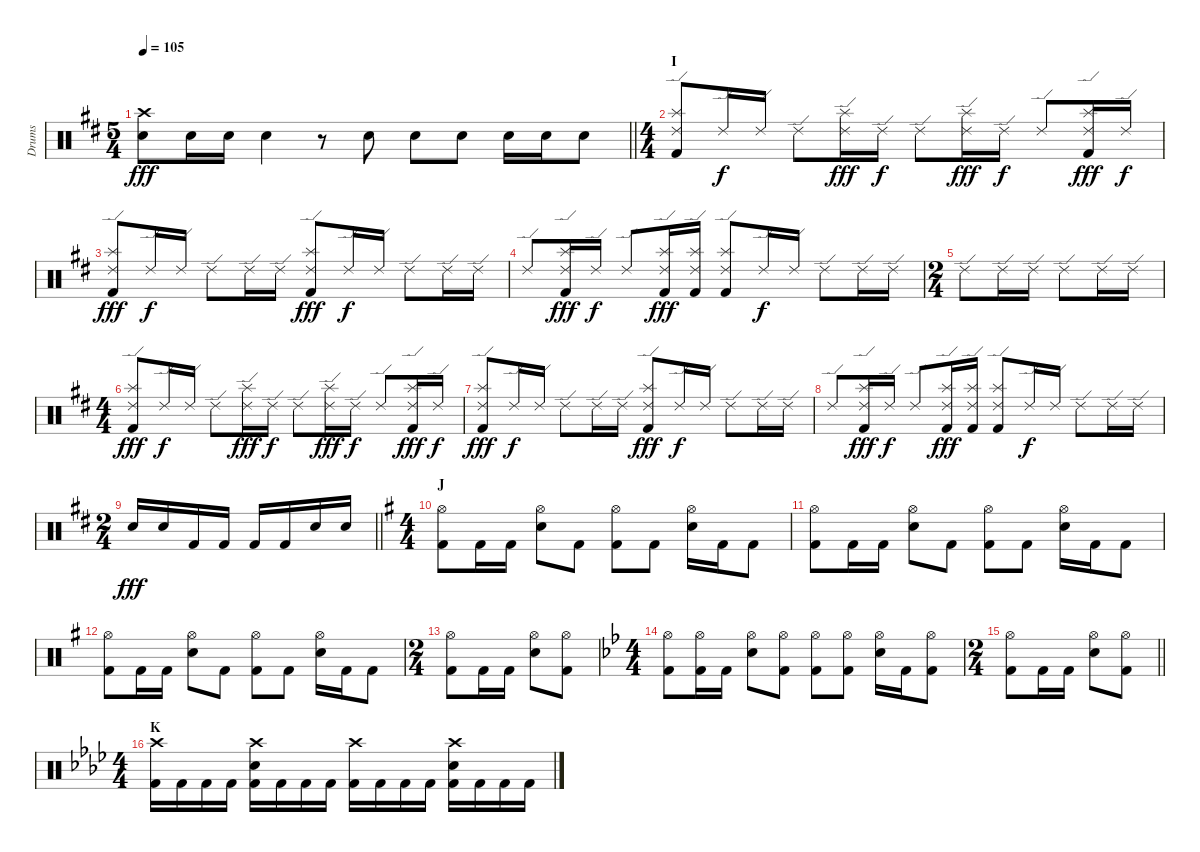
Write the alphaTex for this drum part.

\track ("Drums" "Drums") {instrument percussion}
\staff {score}
\articulation defaults
\ts (5 4)
\tempo 105
\clef neutral
\barLineRight lightlight
\ks bminor
("Crash high (hit)" "Snare (hit) 2").8{dy fff} "Snare (hit) 2".16 "Snare (hit) 2".16 "Snare (hit) 2".4 r.8 "Snare (hit) 2".8 "Snare (hit) 2".8 "Snare (hit) 2".8 "Snare (hit) 2".16 "Snare (hit) 2".16 "Snare (hit) 2".8 |
\ts (4 4)
\section ("" "I")
("Ride (edge) 2" "Splash (hit)" "Kick (hit) 2").8 "Ride (edge) 2".16{dy f} "Ride (edge) 2".16 "Ride (edge) 2".8 ("Ride (edge) 2" "Splash (hit)").16{dy fff} "Ride (edge) 2".16{dy f} "Ride (edge) 2".8 ("Ride (edge) 2" "Splash (hit)").16{dy fff} "Ride (edge) 2".16{dy f} "Ride (edge) 2".8 ("Ride (edge) 2" "Splash (hit)" "Kick (hit) 2").16{dy fff} "Ride (edge) 2".16{dy f} |
("Ride (edge) 2" "Splash (hit)" "Kick (hit) 2").8{dy fff} "Ride (edge) 2".16{dy f} "Ride (edge) 2".16 "Ride (edge) 2".8 "Ride (edge) 2".16 "Ride (edge) 2".16 ("Ride (edge) 2" "Splash (hit)" "Kick (hit) 2").8{dy fff} "Ride (edge) 2".16{dy f} "Ride (edge) 2".16 "Ride (edge) 2".8 "Ride (edge) 2".16 "Ride (edge) 2".16 |
"Ride (edge) 2".8 ("Ride (edge) 2" "Splash (hit)" "Kick (hit) 2").16{dy fff} "Ride (edge) 2".16{dy f} "Ride (edge) 2".8 ("Ride (edge) 2" "Splash (hit)" "Kick (hit) 2").16{dy fff} ("Ride (edge) 2" "Splash (hit)" "Kick (hit) 2").16 ("Ride (edge) 2" "Splash (hit)" "Kick (hit) 2").8 "Ride (edge) 2".16{dy f} "Ride (edge) 2".16 "Ride (edge) 2".8 "Ride (edge) 2".16 "Ride (edge) 2".16 |
\ts (2 4)
"Ride (edge) 2".8 "Ride (edge) 2".16 "Ride (edge) 2".16 "Ride (edge) 2".8 "Ride (edge) 2".16 "Ride (edge) 2".16 |
\ts (4 4)
("Ride (edge) 2" "Splash (hit)" "Kick (hit) 2").8{dy fff} "Ride (edge) 2".16{dy f} "Ride (edge) 2".16 "Ride (edge) 2".8 ("Ride (edge) 2" "Splash (hit)").16{dy fff} "Ride (edge) 2".16{dy f} "Ride (edge) 2".8 ("Ride (edge) 2" "Splash (hit)").16{dy fff} "Ride (edge) 2".16{dy f} "Ride (edge) 2".8 ("Ride (edge) 2" "Splash (hit)" "Kick (hit) 2").16{dy fff} "Ride (edge) 2".16{dy f} |
("Ride (edge) 2" "Splash (hit)" "Kick (hit) 2").8{dy fff} "Ride (edge) 2".16{dy f} "Ride (edge) 2".16 "Ride (edge) 2".8 "Ride (edge) 2".16 "Ride (edge) 2".16 ("Ride (edge) 2" "Splash (hit)" "Kick (hit) 2").8{dy fff} "Ride (edge) 2".16{dy f} "Ride (edge) 2".16 "Ride (edge) 2".8 "Ride (edge) 2".16 "Ride (edge) 2".16 |
"Ride (edge) 2".8 ("Ride (edge) 2" "Splash (hit)" "Kick (hit) 2").16{dy fff} "Ride (edge) 2".16{dy f} "Ride (edge) 2".8 ("Ride (edge) 2" "Splash (hit)" "Kick (hit) 2").16{dy fff} ("Ride (edge) 2" "Splash (hit)" "Kick (hit) 2").16 ("Ride (edge) 2" "Splash (hit)" "Kick (hit) 2").8 "Ride (edge) 2".16{dy f} "Ride (edge) 2".16 "Ride (edge) 2".8 "Ride (edge) 2".16 "Ride (edge) 2".16 |
\ts (2 4)
\barLineRight lightlight "Snare (hit) 2".16{dy fff} "Snare (hit) 2".16 "Kick (hit) 2".16 "Kick (hit) 2".16 "Kick (hit) 2".16 "Kick (hit) 2".16 "Snare (hit) 2".16 "Snare (hit) 2".16
|
\ts (4 4)
\section ("" "J")
\ks eminor
("Hi-Hat (open)" "Kick (hit) 2").8 "Kick (hit) 2".16 "Kick (hit) 2".16 ("Hi-Hat (open)" "Snare (hit) 2").8 "Kick (hit) 2".8 ("Hi-Hat (open)" "Kick (hit) 2").8 "Kick (hit) 2".8 ("Hi-Hat (open)" "Snare (hit) 2").16 "Kick (hit) 2".16 "Kick (hit) 2".8 |
("Hi-Hat (open)" "Kick (hit) 2").8 "Kick (hit) 2".16 "Kick (hit) 2".16 ("Hi-Hat (open)" "Snare (hit) 2").8 "Kick (hit) 2".8 ("Hi-Hat (open)" "Kick (hit) 2").8 "Kick (hit) 2".8 ("Hi-Hat (open)" "Snare (hit) 2").16 "Kick (hit) 2".16 "Kick (hit) 2".8 |
("Hi-Hat (open)" "Kick (hit) 2").8 "Kick (hit) 2".16 "Kick (hit) 2".16 ("Hi-Hat (open)" "Snare (hit) 2").8 "Kick (hit) 2".8 ("Hi-Hat (open)" "Kick (hit) 2").8 "Kick (hit) 2".8 ("Hi-Hat (open)" "Snare (hit) 2").16 "Kick (hit) 2".16 "Kick (hit) 2".8 |
\ts (2 4)
("Hi-Hat (open)" "Kick (hit) 2").8 "Kick (hit) 2".16 "Kick (hit) 2".16 ("Hi-Hat (open)" "Snare (hit) 2").8 ("Hi-Hat (open)" "Kick (hit) 2").8 |
\ts (4 4)
\ks gminor
("Hi-Hat (open)" "Kick (hit) 2").8 ("Hi-Hat (open)" "Kick (hit) 2").16 "Kick (hit) 2".16 ("Hi-Hat (open)" "Snare (hit) 2").8 ("Hi-Hat (open)" "Kick (hit) 2").8 ("Hi-Hat (open)" "Kick (hit) 2").8 ("Hi-Hat (open)" "Kick (hit) 2").8 ("Hi-Hat (open)" "Snare (hit) 2").16 "Kick (hit) 2".16 ("Hi-Hat (open)" "Kick (hit) 2").8 |
\ts (2 4)
\barLineRight lightlight
("Hi-Hat (open)" "Kick (hit) 2").8 "Kick (hit) 2".16 "Kick (hit) 2".16 ("Hi-Hat (open)" "Snare (hit) 2").8 ("Hi-Hat (open)" "Kick (hit) 2").8 |
\ts (4 4)
\section ("" "K")
\ks ab
("Crash high (hit)" "Kick (hit) 2").16 "Kick (hit) 2".16 "Kick (hit) 2".16 "Kick (hit) 2".16 ("Crash high (hit)" "Snare (hit) 2" "Kick (hit) 2").16 "Kick (hit) 2".16 "Kick (hit) 2".16 "Kick (hit) 2".16 ("Crash high (hit)" "Kick (hit) 2").16 "Kick (hit) 2".16 "Kick (hit) 2".16 "Kick (hit) 2".16 ("Crash high (hit)" "Snare (hit) 2" "Kick (hit) 2").16 "Kick (hit) 2".16 "Kick (hit) 2".16 "Kick (hit) 2".16
